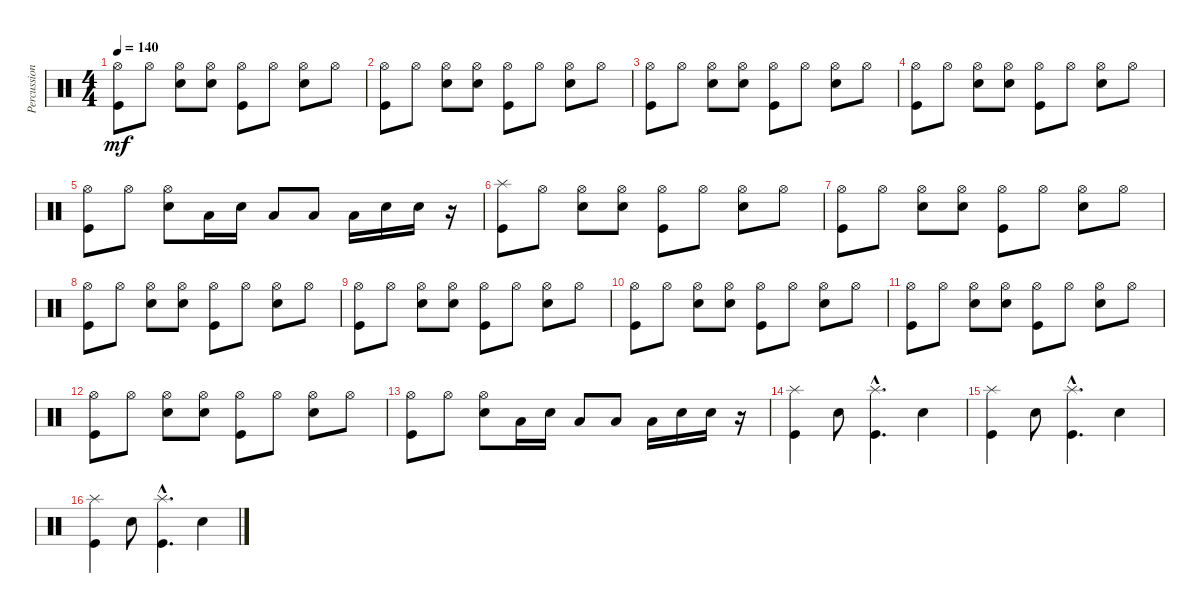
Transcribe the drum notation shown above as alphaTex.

\track ("Percussion" "Percussion") {instrument percussion}
\staff {score}
\articulation defaults
\ts (4 4)
\tempo 140
\clef neutral
\ks c
("Hi-Hat (open)" "Kick (hit)").8{dy mf} "Hi-Hat (open)".8 ("Hi-Hat (open)" "Snare (hit) 2").8 ("Hi-Hat (open)" "Snare (hit) 2").8 ("Hi-Hat (open)" "Kick (hit)").8 "Hi-Hat (open)".8 ("Hi-Hat (open)" "Snare (hit) 2").8 "Hi-Hat (open)".8 |
("Hi-Hat (open)" "Kick (hit)").8 "Hi-Hat (open)".8 ("Hi-Hat (open)" "Snare (hit) 2").8 ("Hi-Hat (open)" "Snare (hit) 2").8 ("Hi-Hat (open)" "Kick (hit)").8 "Hi-Hat (open)".8 ("Hi-Hat (open)" "Snare (hit) 2").8 "Hi-Hat (open)".8 |
("Hi-Hat (open)" "Kick (hit)").8 "Hi-Hat (open)".8 ("Hi-Hat (open)" "Snare (hit) 2").8 ("Hi-Hat (open)" "Snare (hit) 2").8 ("Hi-Hat (open)" "Kick (hit)").8 "Hi-Hat (open)".8 ("Hi-Hat (open)" "Snare (hit) 2").8 "Hi-Hat (open)".8 |
("Hi-Hat (open)" "Kick (hit)").8 "Hi-Hat (open)".8 ("Hi-Hat (open)" "Snare (hit) 2").8 ("Hi-Hat (open)" "Snare (hit) 2").8 ("Hi-Hat (open)" "Kick (hit)").8 "Hi-Hat (open)".8 ("Hi-Hat (open)" "Snare (hit) 2").8 "Hi-Hat (open)".8 |
("Hi-Hat (open)" "Kick (hit)").8 "Hi-Hat (open)".8 ("Hi-Hat (open)" "Snare (hit) 2").8 "Low Tom (hit)".16 "Snare (hit) 2".16 "Low Tom (hit)".8 "Low Tom (hit)".8 "Low Tom (hit)".16 "Snare (hit) 2".16 "Snare (hit) 2".16 r.16 |
("Splash (hit)" "Kick (hit)").8 "Hi-Hat (open)".8 ("Hi-Hat (open)" "Snare (hit) 2").8 ("Hi-Hat (open)" "Snare (hit) 2").8 ("Hi-Hat (open)" "Kick (hit)").8 "Hi-Hat (open)".8 ("Hi-Hat (open)" "Snare (hit) 2").8 "Hi-Hat (open)".8 |
("Hi-Hat (open)" "Kick (hit)").8 "Hi-Hat (open)".8 ("Hi-Hat (open)" "Snare (hit) 2").8 ("Hi-Hat (open)" "Snare (hit) 2").8 ("Hi-Hat (open)" "Kick (hit)").8 "Hi-Hat (open)".8 ("Hi-Hat (open)" "Snare (hit) 2").8 "Hi-Hat (open)".8 |
("Hi-Hat (open)" "Kick (hit)").8 "Hi-Hat (open)".8 ("Hi-Hat (open)" "Snare (hit) 2").8 ("Hi-Hat (open)" "Snare (hit) 2").8 ("Hi-Hat (open)" "Kick (hit)").8 "Hi-Hat (open)".8 ("Hi-Hat (open)" "Snare (hit) 2").8 "Hi-Hat (open)".8 |
("Hi-Hat (open)" "Kick (hit)").8 "Hi-Hat (open)".8 ("Hi-Hat (open)" "Snare (hit) 2").8 ("Hi-Hat (open)" "Snare (hit) 2").8 ("Hi-Hat (open)" "Kick (hit)").8 "Hi-Hat (open)".8 ("Hi-Hat (open)" "Snare (hit) 2").8 "Hi-Hat (open)".8 |
("Hi-Hat (open)" "Kick (hit)").8 "Hi-Hat (open)".8 ("Hi-Hat (open)" "Snare (hit) 2").8 ("Hi-Hat (open)" "Snare (hit) 2").8 ("Hi-Hat (open)" "Kick (hit)").8 "Hi-Hat (open)".8 ("Hi-Hat (open)" "Snare (hit) 2").8 "Hi-Hat (open)".8 |
("Hi-Hat (open)" "Kick (hit)").8 "Hi-Hat (open)".8 ("Hi-Hat (open)" "Snare (hit) 2").8 ("Hi-Hat (open)" "Snare (hit) 2").8 ("Hi-Hat (open)" "Kick (hit)").8 "Hi-Hat (open)".8 ("Hi-Hat (open)" "Snare (hit) 2").8 "Hi-Hat (open)".8 |
("Hi-Hat (open)" "Kick (hit)").8 "Hi-Hat (open)".8 ("Hi-Hat (open)" "Snare (hit) 2").8 ("Hi-Hat (open)" "Snare (hit) 2").8 ("Hi-Hat (open)" "Kick (hit)").8 "Hi-Hat (open)".8 ("Hi-Hat (open)" "Snare (hit) 2").8 "Hi-Hat (open)".8 |
("Hi-Hat (open)" "Kick (hit)").8 "Hi-Hat (open)".8 ("Hi-Hat (open)" "Snare (hit) 2").8 "Low Tom (hit)".16 "Snare (hit) 2".16 "Low Tom (hit)".8 "Low Tom (hit)".8 "Low Tom (hit)".16 "Snare (hit) 2".16 "Snare (hit) 2".16 r.16 |
("Splash (hit)" "Kick (hit)").4 "Snare (hit) 2".8 ("Splash (hit)"{hac} "Kick (hit)"{hac}).4{d} "Snare (hit) 2".4 |
("Splash (hit)" "Kick (hit)").4 "Snare (hit) 2".8 ("Splash (hit)"{hac} "Kick (hit)"{hac}).4{d} "Snare (hit) 2".4 |
("Splash (hit)" "Kick (hit)").4 "Snare (hit) 2".8 ("Splash (hit)"{hac} "Kick (hit)"{hac}).4{d} "Snare (hit) 2".4
